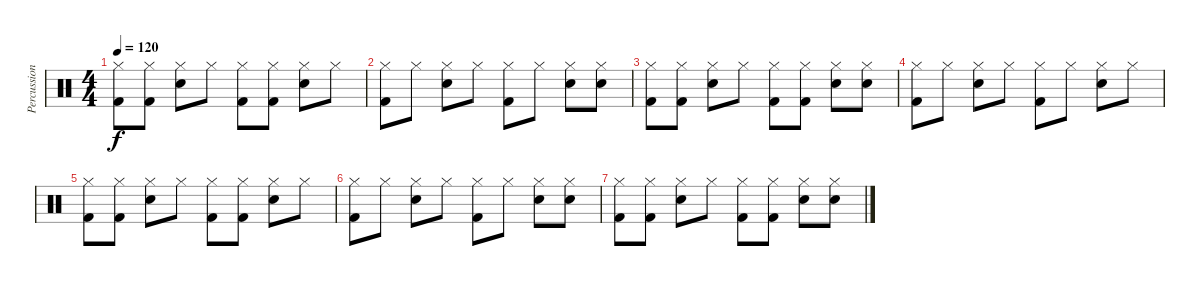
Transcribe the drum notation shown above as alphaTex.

\track ("Percussion" "Percussion") {instrument percussion}
\staff {score}
\articulation defaults
\ts (4 4)
\tempo 120
\clef neutral
\ks c
("Hi-Hat (closed)" "Kick (hit) 2").8{dy f} ("Hi-Hat (closed)" "Kick (hit) 2").8 ("Hi-Hat (closed)" "Electric Snare (hit)").8 "Hi-Hat (closed)".8 ("Hi-Hat (closed)" "Kick (hit) 2").8 ("Hi-Hat (closed)" "Kick (hit) 2").8 ("Hi-Hat (closed)" "Electric Snare (hit)").8 "Hi-Hat (closed)".8 |
("Hi-Hat (closed)" "Kick (hit) 2").8 "Hi-Hat (closed)".8 ("Hi-Hat (closed)" "Electric Snare (hit)").8 "Hi-Hat (closed)".8 ("Hi-Hat (closed)" "Kick (hit) 2").8 "Hi-Hat (closed)".8 ("Hi-Hat (closed)" "Electric Snare (hit)").8 ("Hi-Hat (closed)" "Electric Snare (hit)").8 |
("Hi-Hat (closed)" "Kick (hit) 2").8 ("Hi-Hat (closed)" "Kick (hit) 2").8 ("Hi-Hat (closed)" "Electric Snare (hit)").8 "Hi-Hat (closed)".8 ("Hi-Hat (closed)" "Kick (hit) 2").8 ("Hi-Hat (closed)" "Kick (hit) 2").8 ("Hi-Hat (closed)" "Electric Snare (hit)").8 ("Hi-Hat (closed)" "Electric Snare (hit)").8 |
("Hi-Hat (closed)" "Kick (hit) 2").8 "Hi-Hat (closed)".8 ("Hi-Hat (closed)" "Electric Snare (hit)").8 "Hi-Hat (closed)".8 ("Hi-Hat (closed)" "Kick (hit) 2").8 "Hi-Hat (closed)".8 ("Hi-Hat (closed)" "Electric Snare (hit)").8 "Hi-Hat (closed)".8 |
("Hi-Hat (closed)" "Kick (hit) 2").8 ("Hi-Hat (closed)" "Kick (hit) 2").8 ("Hi-Hat (closed)" "Electric Snare (hit)").8 "Hi-Hat (closed)".8 ("Hi-Hat (closed)" "Kick (hit) 2").8 ("Hi-Hat (closed)" "Kick (hit) 2").8 ("Hi-Hat (closed)" "Electric Snare (hit)").8 "Hi-Hat (closed)".8 |
("Hi-Hat (closed)" "Kick (hit) 2").8 "Hi-Hat (closed)".8 ("Hi-Hat (closed)" "Electric Snare (hit)").8 "Hi-Hat (closed)".8 ("Hi-Hat (closed)" "Kick (hit) 2").8 "Hi-Hat (closed)".8 ("Hi-Hat (closed)" "Electric Snare (hit)").8 ("Hi-Hat (closed)" "Electric Snare (hit)").8 |
("Hi-Hat (closed)" "Kick (hit) 2").8 ("Hi-Hat (closed)" "Kick (hit) 2").8 ("Hi-Hat (closed)" "Electric Snare (hit)").8 "Hi-Hat (closed)".8 ("Hi-Hat (closed)" "Kick (hit) 2").8 ("Hi-Hat (closed)" "Kick (hit) 2").8 ("Hi-Hat (closed)" "Electric Snare (hit)").8 ("Hi-Hat (closed)" "Electric Snare (hit)").8
